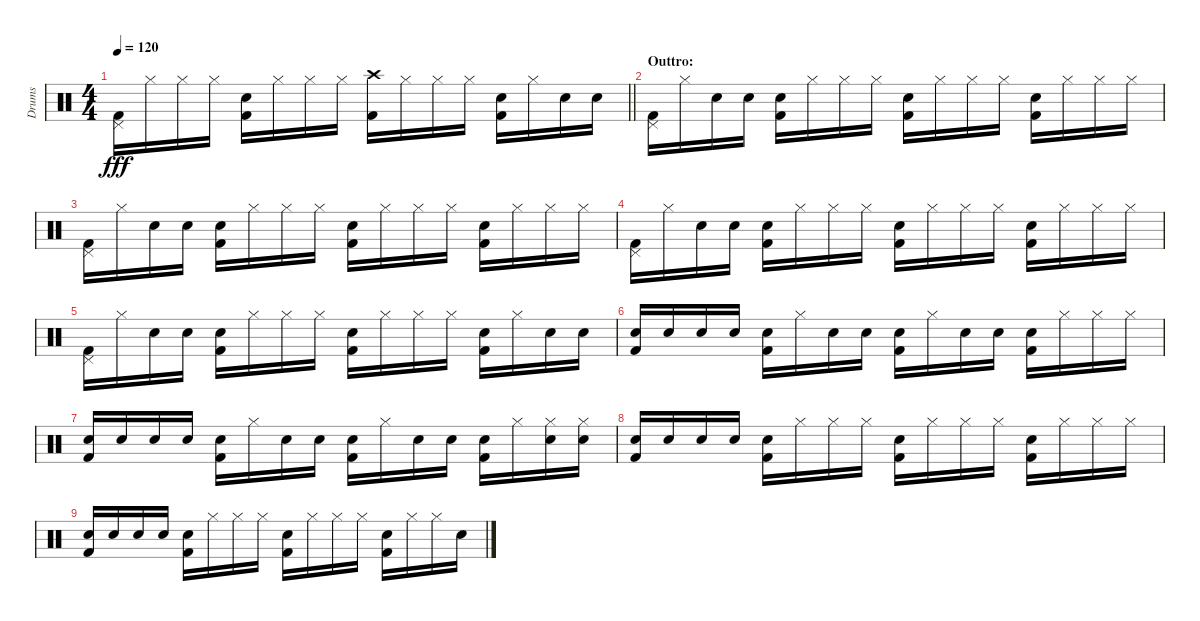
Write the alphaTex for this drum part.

\track ("Drums" "Drums") {instrument percussion}
\staff {score}
\articulation defaults
\ts (4 4)
\tempo 120
\clef neutral
\barLineRight lightlight
\ks c
("Pedal Hi-Hat (hit)" "Kick (hit) 2").16{dy fff} "Hi-Hat (closed)".16 "Hi-Hat (closed)".16 "Hi-Hat (closed)".16 ("Snare (hit) 2" "Kick (hit) 2").16 "Hi-Hat (closed)".16 "Hi-Hat (closed)".16 "Hi-Hat (closed)".16 ("Crash high (hit)" "Kick (hit) 2").16 "Hi-Hat (closed)".16 "Hi-Hat (closed)".16 "Hi-Hat (closed)".16 ("Snare (hit) 2" "Kick (hit) 2").16 "Hi-Hat (closed)".16 "Snare (hit) 2".16 "Snare (hit) 2".16 |
\section ("" "Outtro:")
("Pedal Hi-Hat (hit)" "Kick (hit) 2").16 "Hi-Hat (closed)".16 "Snare (hit) 2".16 "Snare (hit) 2".16 ("Snare (hit) 2" "Kick (hit) 2").16 "Hi-Hat (closed)".16 "Hi-Hat (closed)".16 "Hi-Hat (closed)".16 ("Snare (hit) 2" "Kick (hit) 2").16 "Hi-Hat (closed)".16 "Hi-Hat (closed)".16 "Hi-Hat (closed)".16 ("Snare (hit) 2" "Kick (hit) 2").16 "Hi-Hat (closed)".16 "Hi-Hat (closed)".16 "Hi-Hat (closed)".16 |
("Pedal Hi-Hat (hit)" "Kick (hit) 2").16 "Hi-Hat (closed)".16 "Snare (hit) 2".16 "Snare (hit) 2".16 ("Snare (hit) 2" "Kick (hit) 2").16 "Hi-Hat (closed)".16 "Hi-Hat (closed)".16 "Hi-Hat (closed)".16 ("Snare (hit) 2" "Kick (hit) 2").16 "Hi-Hat (closed)".16 "Hi-Hat (closed)".16 "Hi-Hat (closed)".16 ("Snare (hit) 2" "Kick (hit) 2").16 "Hi-Hat (closed)".16 "Hi-Hat (closed)".16 "Hi-Hat (closed)".16 |
("Pedal Hi-Hat (hit)" "Kick (hit) 2").16 "Hi-Hat (closed)".16 "Snare (hit) 2".16 "Snare (hit) 2".16 ("Snare (hit) 2" "Kick (hit) 2").16 "Hi-Hat (closed)".16 "Hi-Hat (closed)".16 "Hi-Hat (closed)".16 ("Snare (hit) 2" "Kick (hit) 2").16 "Hi-Hat (closed)".16 "Hi-Hat (closed)".16 "Hi-Hat (closed)".16 ("Snare (hit) 2" "Kick (hit) 2").16 "Hi-Hat (closed)".16 "Hi-Hat (closed)".16 "Hi-Hat (closed)".16 |
("Pedal Hi-Hat (hit)" "Kick (hit) 2").16 "Hi-Hat (closed)".16 "Snare (hit) 2".16 "Snare (hit) 2".16 ("Snare (hit) 2" "Kick (hit) 2").16 "Hi-Hat (closed)".16 "Hi-Hat (closed)".16 "Hi-Hat (closed)".16 ("Snare (hit) 2" "Kick (hit) 2").16 "Hi-Hat (closed)".16 "Hi-Hat (closed)".16 "Hi-Hat (closed)".16 ("Snare (hit) 2" "Kick (hit) 2").16 "Hi-Hat (closed)".16 "Snare (hit) 2".16 "Snare (hit) 2".16 |
("Snare (hit) 2" "Kick (hit) 2").16 "Snare (hit) 2".16 "Snare (hit) 2".16 "Snare (hit) 2".16 ("Snare (hit) 2" "Kick (hit) 2").16 "Hi-Hat (closed)".16 "Snare (hit) 2".16 "Snare (hit) 2".16 ("Snare (hit) 2" "Kick (hit) 2").16 "Hi-Hat (closed)".16 "Snare (hit) 2".16 "Snare (hit) 2".16 ("Snare (hit) 2" "Kick (hit) 2").16 "Hi-Hat (closed)".16 "Hi-Hat (closed)".16 "Hi-Hat (closed)".16 |
("Snare (hit) 2" "Kick (hit) 2").16 "Snare (hit) 2".16 "Snare (hit) 2".16 "Snare (hit) 2".16 ("Snare (hit) 2" "Kick (hit) 2").16 "Hi-Hat (closed)".16 "Snare (hit) 2".16 "Snare (hit) 2".16 ("Snare (hit) 2" "Kick (hit) 2").16 "Hi-Hat (closed)".16 "Snare (hit) 2".16 "Snare (hit) 2".16 ("Snare (hit) 2" "Kick (hit) 2").16 "Hi-Hat (closed)".16 ("Hi-Hat (closed)" "Snare (hit) 2").16 ("Hi-Hat (closed)" "Snare (hit) 2").16 |
("Snare (hit) 2" "Kick (hit) 2").16 "Snare (hit) 2".16 "Snare (hit) 2".16 "Snare (hit) 2".16 ("Snare (hit) 2" "Kick (hit) 2").16 "Hi-Hat (closed)".16 "Hi-Hat (closed)".16 "Hi-Hat (closed)".16 ("Snare (hit) 2" "Kick (hit) 2").16 "Hi-Hat (closed)".16 "Hi-Hat (closed)".16 "Hi-Hat (closed)".16 ("Snare (hit) 2" "Kick (hit) 2").16 "Hi-Hat (closed)".16 "Hi-Hat (closed)".16 "Hi-Hat (closed)".16 |
("Snare (hit) 2" "Kick (hit) 2").16 "Snare (hit) 2".16 "Snare (hit) 2".16 "Snare (hit) 2".16 ("Snare (hit) 2" "Kick (hit) 2").16 "Hi-Hat (closed)".16 "Hi-Hat (closed)".16 "Hi-Hat (closed)".16 ("Snare (hit) 2" "Kick (hit) 2").16 "Hi-Hat (closed)".16 "Hi-Hat (closed)".16 "Hi-Hat (closed)".16 ("Snare (hit) 2" "Kick (hit) 2").16 "Hi-Hat (closed)".16 "Hi-Hat (closed)".16 "Snare (hit) 2".16
